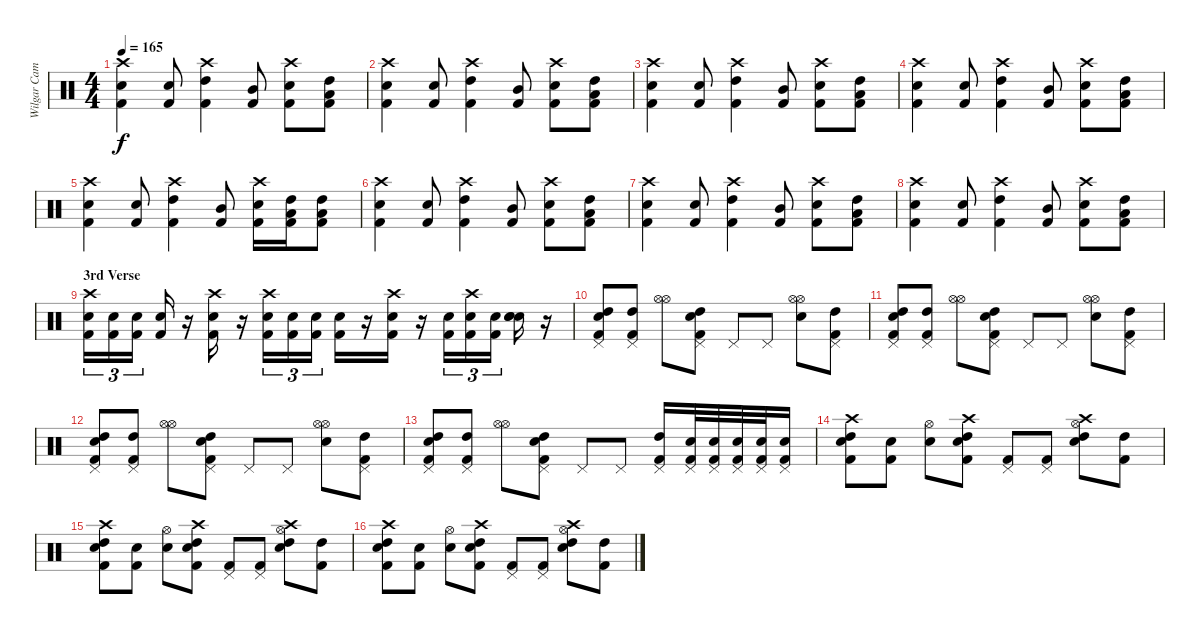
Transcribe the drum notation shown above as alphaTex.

\track ("Wilgar Campbell" "Wilgar Cam") {instrument percussion}
\staff {score}
\articulation defaults
\ts (4 4)
\tempo 165
\clef neutral
\ks c
("Crash high (hit)" "Electric Snare (hit)" "Kick (hit) 2").4{dy f} ("Snare (hit) 2" "Kick (hit) 2").8 ("Crash high (hit)" "High Tom (hit)" "Kick (hit) 2").4 ("Mid Tom (hit)" "Kick (hit) 2").8 ("Crash high (hit)" "Electric Snare (hit)" "Kick (hit) 2").8 ("High Tom (hit)" "Kick (hit) 2" "Low Tom (hit)").8 |
("Crash high (hit)" "Electric Snare (hit)" "Kick (hit) 2").4 ("Snare (hit) 2" "Kick (hit) 2").8 ("Crash high (hit)" "High Tom (hit)" "Kick (hit) 2").4 ("Mid Tom (hit)" "Kick (hit) 2").8 ("Crash high (hit)" "Electric Snare (hit)" "Kick (hit) 2").8 ("High Tom (hit)" "Kick (hit) 2" "Low Tom (hit)").8 |
("Crash high (hit)" "Electric Snare (hit)" "Kick (hit) 2").4 ("Snare (hit) 2" "Kick (hit) 2").8 ("Crash high (hit)" "High Tom (hit)" "Kick (hit) 2").4 ("Mid Tom (hit)" "Kick (hit) 2").8 ("Crash high (hit)" "Electric Snare (hit)" "Kick (hit) 2").8 ("High Tom (hit)" "Kick (hit) 2" "Low Tom (hit)").8 |
("Crash high (hit)" "Electric Snare (hit)" "Kick (hit) 2").4 ("Snare (hit) 2" "Kick (hit) 2").8 ("Crash high (hit)" "High Tom (hit)" "Kick (hit) 2").4 ("Mid Tom (hit)" "Kick (hit) 2").8 ("Crash high (hit)" "Electric Snare (hit)" "Kick (hit) 2").8 ("High Tom (hit)" "Kick (hit) 2" "Low Tom (hit)").8 |
("Crash high (hit)" "Electric Snare (hit)" "Kick (hit) 2").4 ("Snare (hit) 2" "Kick (hit) 2").8 ("Crash high (hit)" "High Tom (hit)" "Kick (hit) 2").4 ("Mid Tom (hit)" "Kick (hit) 2").8 ("Crash high (hit)" "Electric Snare (hit)" "Kick (hit) 2").16 ("High Tom (hit)" "Kick (hit) 2" "Low Tom (hit)").16 ("High Tom (hit)" "Kick (hit) 2" "Low Tom (hit)").8 |
("Crash high (hit)" "Electric Snare (hit)" "Kick (hit) 2").4 ("Snare (hit) 2" "Kick (hit) 2").8 ("Crash high (hit)" "High Tom (hit)" "Kick (hit) 2").4 ("Mid Tom (hit)" "Kick (hit) 2").8 ("Crash high (hit)" "Electric Snare (hit)" "Kick (hit) 2").8 ("High Tom (hit)" "Kick (hit) 2" "Low Tom (hit)").8 |
("Crash high (hit)" "Electric Snare (hit)" "Kick (hit) 2").4 ("Snare (hit) 2" "Kick (hit) 2").8 ("Crash high (hit)" "High Tom (hit)" "Kick (hit) 2").4 ("Mid Tom (hit)" "Kick (hit) 2").8 ("Crash high (hit)" "Electric Snare (hit)" "Kick (hit) 2").8 ("High Tom (hit)" "Kick (hit) 2" "Low Tom (hit)").8 |
("Crash high (hit)" "Electric Snare (hit)" "Kick (hit) 2").4 ("Snare (hit) 2" "Kick (hit) 2").8 ("Crash high (hit)" "High Tom (hit)" "Kick (hit) 2").4 ("Mid Tom (hit)" "Kick (hit) 2").8 ("Crash high (hit)" "Electric Snare (hit)" "Kick (hit) 2").8 ("High Tom (hit)" "Kick (hit) 2" "Low Tom (hit)").8 |
\section ("" "3rd Verse")
("Crash high (hit)" "Electric Snare (hit)" "Kick (hit) 2").16{tu (3 2)} ("Electric Snare (hit)" "Kick (hit) 2").16{tu (3 2)} ("Electric Snare (hit)" "Kick (hit) 2").16{tu (3 2)} ("Snare (hit) 2" "Kick (hit) 2").16 r.16 ("Crash high (hit)" "Snare (hit) 2" "Kick (hit) 2").16 r.16 ("Crash high (hit)" "Electric Snare (hit)" "Kick (hit) 2").16{tu (3 2)} ("Electric Snare (hit)" "Kick (hit) 2").16{tu (3 2)} ("Electric Snare (hit)" "Kick (hit) 2").16{tu (3 2)} ("Snare (hit) 2" "Kick (hit) 2").16 r.16 ("Crash high (hit)" "Snare (hit) 2" "Kick (hit) 2").16 r.16 ("Electric Snare (hit)" "Kick (hit) 2").16{tu (3 2)} ("Crash high (hit)" "Electric Snare (hit)" "Kick (hit) 2").16{tu (3 2)} ("Electric Snare (hit)" "Kick (hit) 2").16{tu (3 2)} ("Electric Snare (hit)" "Snare (hit) 2" "Electric Snare (hit)").16 r.16 |
("Snare (hit) 2" "Kick (hit) 2" "High Tom (hit)" "Pedal Hi-Hat (hit)").8 ("Kick (hit) 2" "High Tom (hit)" "Pedal Hi-Hat (hit)").8 ("Hi-Hat (open)" "Hi-Hat (open)").8 ("Snare (hit) 2" "Kick (hit) 2" "High Tom (hit)" "Pedal Hi-Hat (hit)").8 "Pedal Hi-Hat (hit)".8 "Pedal Hi-Hat (hit)".8 ("Snare (hit) 2" "Hi-Hat (open)" "Hi-Hat (open)").8 ("Kick (hit) 2" "High Tom (hit)" "Pedal Hi-Hat (hit)").8 |
("Snare (hit) 2" "Kick (hit) 2" "High Tom (hit)" "Pedal Hi-Hat (hit)").8 ("Kick (hit) 2" "High Tom (hit)" "Pedal Hi-Hat (hit)").8 ("Hi-Hat (open)" "Hi-Hat (open)").8 ("Snare (hit) 2" "Kick (hit) 2" "High Tom (hit)" "Pedal Hi-Hat (hit)").8 "Pedal Hi-Hat (hit)".8 "Pedal Hi-Hat (hit)".8 ("Snare (hit) 2" "Hi-Hat (open)" "Hi-Hat (open)").8 ("Kick (hit) 2" "High Tom (hit)" "Pedal Hi-Hat (hit)").8 |
("Snare (hit) 2" "Kick (hit) 2" "High Tom (hit)" "Pedal Hi-Hat (hit)").8 ("Kick (hit) 2" "High Tom (hit)" "Pedal Hi-Hat (hit)").8 ("Hi-Hat (open)" "Hi-Hat (open)").8 ("Snare (hit) 2" "Kick (hit) 2" "High Tom (hit)" "Pedal Hi-Hat (hit)").8 "Pedal Hi-Hat (hit)".8 "Pedal Hi-Hat (hit)".8 ("Snare (hit) 2" "Hi-Hat (open)" "Hi-Hat (open)").8 ("Kick (hit) 2" "High Tom (hit)" "Pedal Hi-Hat (hit)").8 |
("Snare (hit) 2" "Kick (hit) 2" "High Tom (hit)" "Pedal Hi-Hat (hit)").8 ("Kick (hit) 2" "High Tom (hit)" "Pedal Hi-Hat (hit)").8 ("Hi-Hat (open)" "Hi-Hat (open)").8 ("Snare (hit) 2" "Kick (hit) 2" "High Tom (hit)" "Pedal Hi-Hat (hit)").8 "Pedal Hi-Hat (hit)".8 "Pedal Hi-Hat (hit)".8 ("High Tom (hit)" "Kick (hit) 2" "Pedal Hi-Hat (hit)").16 ("Snare (hit) 2" "Kick (hit) 2" "Pedal Hi-Hat (hit)").32 ("Snare (hit) 2" "Kick (hit) 2" "Pedal Hi-Hat (hit)").32 ("Snare (hit) 2" "Kick (hit) 2" "Pedal Hi-Hat (hit)").32 ("Snare (hit) 2" "Kick (hit) 2" "Pedal Hi-Hat (hit)").32 ("Snare (hit) 2" "Kick (hit) 2" "Pedal Hi-Hat (hit)").16 |
("High Tom (hit)" "Kick (hit) 2" "Snare (hit) 2" "Crash high (hit)").8 ("Kick (hit) 2" "Snare (hit) 2").8 ("Hi-Hat (open)" "Snare (hit) 2").8 ("High Tom (hit)" "Kick (hit) 2" "Snare (hit) 2" "Crash high (hit)").8 ("Pedal Hi-Hat (hit)" "Kick (hit) 2").8 ("Pedal Hi-Hat (hit)" "Kick (hit) 2").8 ("High Tom (hit)" "Hi-Hat (open)" "Snare (hit) 2" "Crash high (hit)").8 ("Kick (hit) 2" "High Tom (hit)").8 |
("High Tom (hit)" "Kick (hit) 2" "Snare (hit) 2" "Crash high (hit)").8 ("Kick (hit) 2" "Snare (hit) 2").8 ("Hi-Hat (open)" "Snare (hit) 2").8 ("High Tom (hit)" "Kick (hit) 2" "Snare (hit) 2" "Crash high (hit)").8 ("Pedal Hi-Hat (hit)" "Kick (hit) 2").8 ("Pedal Hi-Hat (hit)" "Kick (hit) 2").8 ("High Tom (hit)" "Hi-Hat (open)" "Snare (hit) 2" "Crash high (hit)").8 ("Kick (hit) 2" "High Tom (hit)").8 |
("High Tom (hit)" "Kick (hit) 2" "Snare (hit) 2" "Crash high (hit)").8 ("Kick (hit) 2" "Snare (hit) 2").8 ("Hi-Hat (open)" "Snare (hit) 2").8 ("High Tom (hit)" "Kick (hit) 2" "Snare (hit) 2" "Crash high (hit)").8 ("Pedal Hi-Hat (hit)" "Kick (hit) 2").8 ("Pedal Hi-Hat (hit)" "Kick (hit) 2").8 ("High Tom (hit)" "Hi-Hat (open)" "Snare (hit) 2" "Crash high (hit)").8 ("Kick (hit) 2" "High Tom (hit)").8
